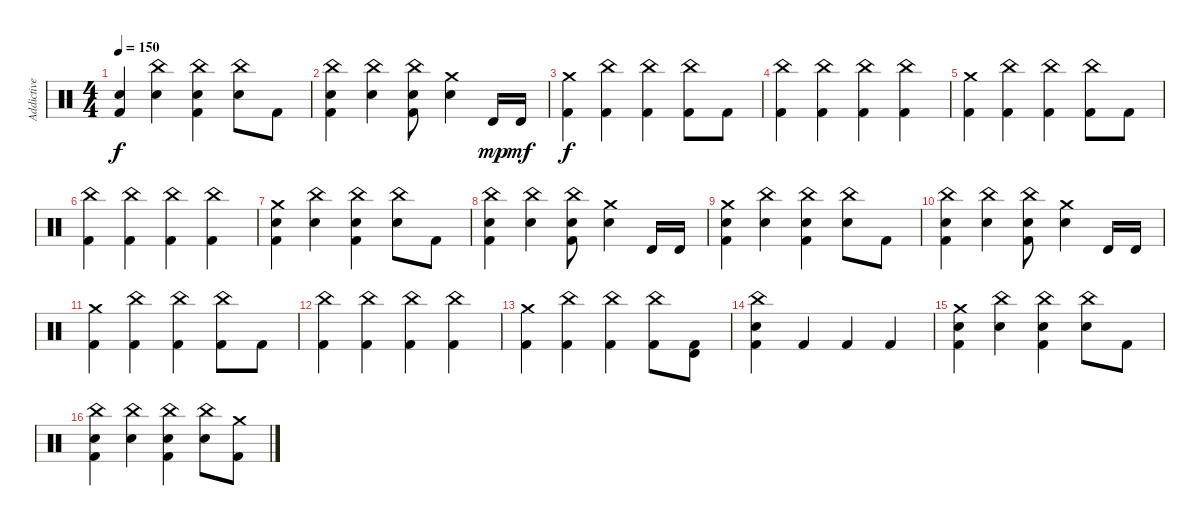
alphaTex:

\track ("Addictive Drums (MIDI)" "Addictive ") {instrument percussion}
\staff {score}
\articulation defaults
\ts (4 4)
\tempo 150
\clef neutral
\ks c
("Snare (hit) 2" "Kick (hit) 2").4{dy f} ("China (hit)" "Snare (hit) 2").4 ("Snare (hit) 2" "China (hit)" "Kick (hit) 2").4 ("Snare (hit) 2" "China (hit)").8 "Kick (hit) 2".8 |
("Snare (hit) 2" "China (hit)" "Kick (hit) 2").4 ("Snare (hit) 2" "China (hit)").4 ("Kick (hit) 2" "China (hit)" "Snare (hit) 2").8 ("Snare (hit) 2" "Crash medium (hit)").4 "Timbale high (hit)".16{dy mp} "Timbale high (hit)".16{dy mf} |
("Kick (hit) 2" "Crash medium (hit)").4{dy f} ("China (hit)" "Kick (hit) 2").4 ("China (hit)" "Kick (hit) 2").4 ("Kick (hit) 2" "China (hit)").8 "Kick (hit) 2".8 |
("Kick (hit) 2" "China (hit)").4 ("Kick (hit) 2" "China (hit)").4 ("China (hit)" "Kick (hit) 2").4 ("China (hit)" "Kick (hit) 2").4 |
("Kick (hit) 2" "Crash medium (hit)").4 ("Kick (hit) 2" "China (hit)").4 ("China (hit)" "Kick (hit) 2").4 ("Kick (hit) 2" "China (hit)").8 "Kick (hit) 2".8 |
("Kick (hit) 2" "China (hit)").4 ("Kick (hit) 2" "China (hit)").4 ("Kick (hit) 2" "China (hit)").4 ("China (hit)" "Kick (hit) 2").4 |
("Crash medium (hit)" "Kick (hit) 2" "Snare (hit) 2").4 ("Snare (hit) 2" "China (hit)").4 ("Snare (hit) 2" "China (hit)" "Kick (hit) 2").4 ("China (hit)" "Snare (hit) 2").8 "Kick (hit) 2".8 |
("Snare (hit) 2" "China (hit)" "Kick (hit) 2").4 ("China (hit)" "Snare (hit) 2").4 ("Kick (hit) 2" "China (hit)" "Snare (hit) 2").8 ("Snare (hit) 2" "Crash medium (hit)").4 "Timbale high (hit)".16 "Timbale high (hit)".16 |
("Crash medium (hit)" "Kick (hit) 2" "Snare (hit) 2").4 ("Snare (hit) 2" "China (hit)").4 ("Kick (hit) 2" "China (hit)" "Snare (hit) 2").4 ("Snare (hit) 2" "China (hit)").8 "Kick (hit) 2".8 |
("Kick (hit) 2" "China (hit)" "Snare (hit) 2").4 ("China (hit)" "Snare (hit) 2").4 ("Snare (hit) 2" "China (hit)" "Kick (hit) 2").8 ("Snare (hit) 2" "Crash medium (hit)").4 "Timbale high (hit)".16 "Timbale high (hit)".16 |
("Kick (hit) 2" "Crash medium (hit)").4 ("Kick (hit) 2" "China (hit)").4 ("China (hit)" "Kick (hit) 2").4 ("China (hit)" "Kick (hit) 2").8 "Kick (hit) 2".8 |
("Kick (hit) 2" "China (hit)").4 ("China (hit)" "Kick (hit) 2").4 ("Kick (hit) 2" "China (hit)").4 ("China (hit)" "Kick (hit) 2").4 |
("Crash medium (hit)" "Kick (hit) 2").4 ("China (hit)" "Kick (hit) 2").4 ("China (hit)" "Kick (hit) 2").4 ("China (hit)" "Kick (hit) 2").8 ("Kick (hit) 2" "Timbale high (hit)").8 |
("Snare (hit) 2" "China (hit)" "Kick (hit) 2").4 "Kick (hit) 2".4 "Kick (hit) 2".4 "Kick (hit) 2".4 |
("Snare (hit) 2" "Kick (hit) 2" "Crash medium (hit)").4 ("China (hit)" "Snare (hit) 2").4 ("Snare (hit) 2" "China (hit)" "Kick (hit) 2").4 ("China (hit)" "Snare (hit) 2").8 "Kick (hit) 2".8 |
("Kick (hit) 2" "China (hit)" "Snare (hit) 2").4 ("China (hit)" "Snare (hit) 2").4 ("Kick (hit) 2" "China (hit)" "Snare (hit) 2").4 ("Snare (hit) 2" "China (hit)").8 ("Kick (hit) 2" "Crash medium (hit)").8
